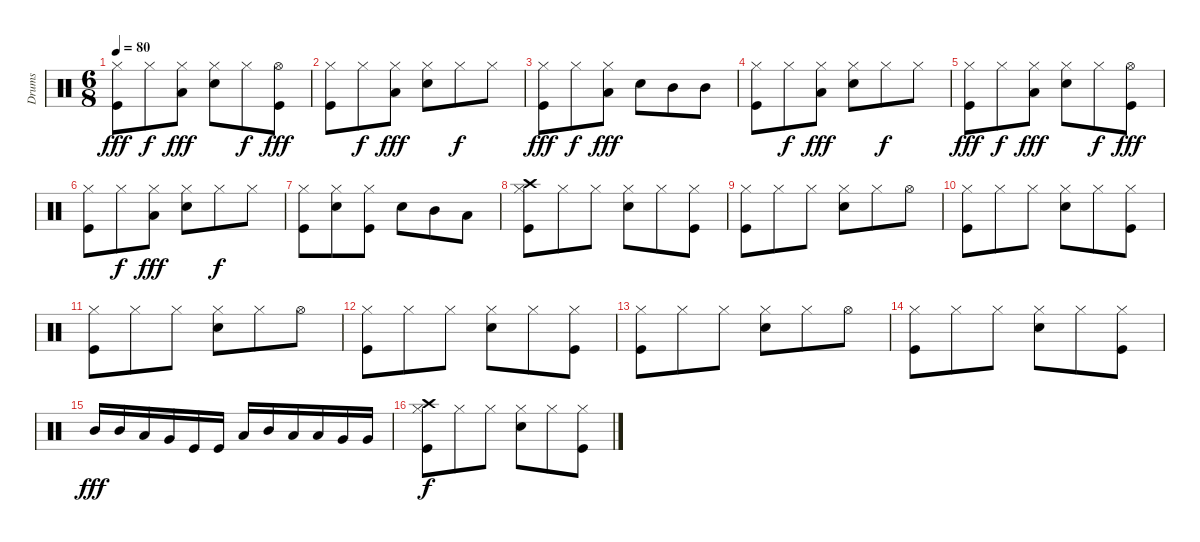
\track ("Drums" "Drums") {instrument percussion}
\staff {score}
\articulation defaults
\ts (6 8)
\tempo 80
\clef neutral
\ks c
("Hi-Hat (closed)" "Kick (hit)").8{dy fff} "Hi-Hat (closed)".8{dy f} ("Hi-Hat (closed)" "Low Tom (hit)").8{dy fff} ("Hi-Hat (closed)" "Electric Snare (hit)").8 "Hi-Hat (closed)".8{dy f} ("Hi-Hat (open)" "Kick (hit)").8{dy fff} |
("Hi-Hat (closed)" "Kick (hit)").8 "Hi-Hat (closed)".8{dy f} ("Hi-Hat (closed)" "Low Tom (hit)").8{dy fff} ("Hi-Hat (closed)" "Electric Snare (hit)").8 "Hi-Hat (closed)".8{dy f} "Hi-Hat (closed)".8 |
("Hi-Hat (closed)" "Kick (hit)").8{dy fff} "Hi-Hat (closed)".8{dy f} ("Hi-Hat (closed)" "Low Tom (hit)").8{dy fff} "Electric Snare (hit)".8 "Mid Tom (hit)".8 "Mid Tom (hit)".8 |
("Hi-Hat (closed)" "Kick (hit)").8 "Hi-Hat (closed)".8{dy f} ("Hi-Hat (closed)" "Low Tom (hit)").8{dy fff} ("Hi-Hat (closed)" "Electric Snare (hit)").8 "Hi-Hat (closed)".8{dy f} "Hi-Hat (closed)".8 |
("Hi-Hat (closed)" "Kick (hit)").8{dy fff} "Hi-Hat (closed)".8{dy f} ("Hi-Hat (closed)" "Low Tom (hit)").8{dy fff} ("Hi-Hat (closed)" "Electric Snare (hit)").8 "Hi-Hat (closed)".8{dy f} ("Hi-Hat (open)" "Kick (hit)").8{dy fff} |
("Hi-Hat (closed)" "Kick (hit)").8 "Hi-Hat (closed)".8{dy f} ("Hi-Hat (closed)" "Low Tom (hit)").8{dy fff} ("Hi-Hat (closed)" "Electric Snare (hit)").8 "Hi-Hat (closed)".8{dy f} "Hi-Hat (closed)".8 |
("Hi-Hat (closed)" "Kick (hit)").8 ("Hi-Hat (closed)" "Electric Snare (hit)").8 ("Hi-Hat (closed)" "Kick (hit)").8 "Electric Snare (hit)".8 "Mid Tom (hit)".8 "Low Tom (hit)".8 |
("Hi-Hat (closed)" "Kick (hit)" "Crash high (hit)").8 "Hi-Hat (closed)".8 "Hi-Hat (closed)".8 ("Hi-Hat (closed)" "Electric Snare (hit)").8 "Hi-Hat (closed)".8 ("Hi-Hat (closed)" "Kick (hit)").8 |
("Hi-Hat (closed)" "Kick (hit)").8 "Hi-Hat (closed)".8 "Hi-Hat (closed)".8 ("Hi-Hat (closed)" "Electric Snare (hit)").8 "Hi-Hat (closed)".8 "Hi-Hat (open)".8 |
("Hi-Hat (closed)" "Kick (hit)").8 "Hi-Hat (closed)".8 "Hi-Hat (closed)".8 ("Hi-Hat (closed)" "Electric Snare (hit)").8 "Hi-Hat (closed)".8 ("Hi-Hat (closed)" "Kick (hit)").8 |
("Hi-Hat (closed)" "Kick (hit)").8 "Hi-Hat (closed)".8 "Hi-Hat (closed)".8 ("Hi-Hat (closed)" "Electric Snare (hit)").8 "Hi-Hat (closed)".8 "Hi-Hat (open)".8 |
("Hi-Hat (closed)" "Kick (hit)").8 "Hi-Hat (closed)".8 "Hi-Hat (closed)".8 ("Hi-Hat (closed)" "Electric Snare (hit)").8 "Hi-Hat (closed)".8 ("Hi-Hat (closed)" "Kick (hit)").8 |
("Hi-Hat (closed)" "Kick (hit)").8 "Hi-Hat (closed)".8 "Hi-Hat (closed)".8 ("Hi-Hat (closed)" "Electric Snare (hit)").8 "Hi-Hat (closed)".8 "Hi-Hat (open)".8 |
("Hi-Hat (closed)" "Kick (hit)").8 "Hi-Hat (closed)".8 "Hi-Hat (closed)".8 ("Hi-Hat (closed)" "Electric Snare (hit)").8 "Hi-Hat (closed)".8 ("Hi-Hat (closed)" "Kick (hit)").8 |
"Mid Tom (hit)".16{dy fff} "Mid Tom (hit)".16 "Low Tom (hit)".16 "Very Low Tom (hit)".16 "Kick (hit)".16 "Kick (hit)".16 "Low Tom (hit)".16 "Mid Tom (hit)".16 "Low Tom (hit)".16 "Low Tom (hit)".16 "Very Low Tom (hit)".16 "Very Low Tom (hit)".16 |
("Hi-Hat (closed)" "Kick (hit)" "Crash high (hit)").8{dy f} "Hi-Hat (closed)".8 "Hi-Hat (closed)".8 ("Hi-Hat (closed)" "Electric Snare (hit)").8 "Hi-Hat (closed)".8 ("Hi-Hat (closed)" "Kick (hit)").8
